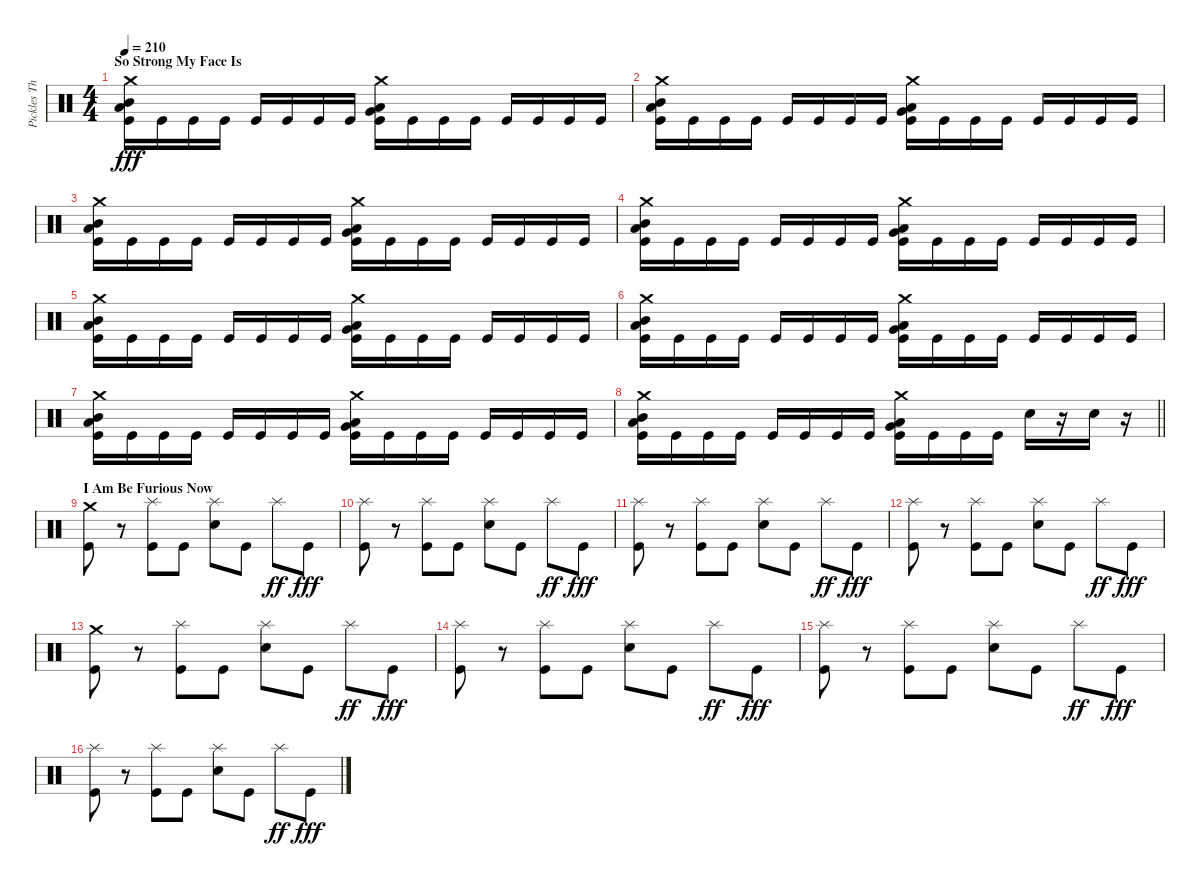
\track ("Pickles The Drummer (Drums)" "Pickles Th") {instrument percussion}
\staff {score}
\articulation defaults
\ts (4 4)
\section ("" "So Strong My Face Is")
\tempo 210
\clef neutral
\ks c
("Crash medium (hit)" "Mid Tom (hit)" "Low Tom (hit)" "Kick (hit)").16{dy fff} "Kick (hit)".16 "Kick (hit)".16 "Kick (hit)".16 "Kick (hit)".16 "Kick (hit)".16 "Kick (hit)".16 "Kick (hit)".16 ("Crash medium (hit)" "Very Low Tom (hit)" "Low Floor Tom (hit)" "Kick (hit)").16 "Kick (hit)".16 "Kick (hit)".16 "Kick (hit)".16 "Kick (hit)".16 "Kick (hit)".16 "Kick (hit)".16 "Kick (hit)".16 |
("Crash medium (hit)" "Mid Tom (hit)" "Low Tom (hit)" "Kick (hit)").16 "Kick (hit)".16 "Kick (hit)".16 "Kick (hit)".16 "Kick (hit)".16 "Kick (hit)".16 "Kick (hit)".16 "Kick (hit)".16 ("Crash medium (hit)" "Very Low Tom (hit)" "Low Floor Tom (hit)" "Kick (hit)").16 "Kick (hit)".16 "Kick (hit)".16 "Kick (hit)".16 "Kick (hit)".16 "Kick (hit)".16 "Kick (hit)".16 "Kick (hit)".16 |
("Crash medium (hit)" "Mid Tom (hit)" "Low Tom (hit)" "Kick (hit)").16 "Kick (hit)".16 "Kick (hit)".16 "Kick (hit)".16 "Kick (hit)".16 "Kick (hit)".16 "Kick (hit)".16 "Kick (hit)".16 ("Crash medium (hit)" "Very Low Tom (hit)" "Low Floor Tom (hit)" "Kick (hit)").16 "Kick (hit)".16 "Kick (hit)".16 "Kick (hit)".16 "Kick (hit)".16 "Kick (hit)".16 "Kick (hit)".16 "Kick (hit)".16 |
("Crash medium (hit)" "Mid Tom (hit)" "Low Tom (hit)" "Kick (hit)").16 "Kick (hit)".16 "Kick (hit)".16 "Kick (hit)".16 "Kick (hit)".16 "Kick (hit)".16 "Kick (hit)".16 "Kick (hit)".16 ("Crash medium (hit)" "Very Low Tom (hit)" "Low Floor Tom (hit)" "Kick (hit)").16 "Kick (hit)".16 "Kick (hit)".16 "Kick (hit)".16 "Kick (hit)".16 "Kick (hit)".16 "Kick (hit)".16 "Kick (hit)".16 |
("Crash medium (hit)" "Mid Tom (hit)" "Low Tom (hit)" "Kick (hit)").16 "Kick (hit)".16 "Kick (hit)".16 "Kick (hit)".16 "Kick (hit)".16 "Kick (hit)".16 "Kick (hit)".16 "Kick (hit)".16 ("Crash medium (hit)" "Very Low Tom (hit)" "Low Floor Tom (hit)" "Kick (hit)").16 "Kick (hit)".16 "Kick (hit)".16 "Kick (hit)".16 "Kick (hit)".16 "Kick (hit)".16 "Kick (hit)".16 "Kick (hit)".16 |
("Crash medium (hit)" "Mid Tom (hit)" "Low Tom (hit)" "Kick (hit)").16 "Kick (hit)".16 "Kick (hit)".16 "Kick (hit)".16 "Kick (hit)".16 "Kick (hit)".16 "Kick (hit)".16 "Kick (hit)".16 ("Crash medium (hit)" "Very Low Tom (hit)" "Low Floor Tom (hit)" "Kick (hit)").16 "Kick (hit)".16 "Kick (hit)".16 "Kick (hit)".16 "Kick (hit)".16 "Kick (hit)".16 "Kick (hit)".16 "Kick (hit)".16 |
("Crash medium (hit)" "Mid Tom (hit)" "Low Tom (hit)" "Kick (hit)").16 "Kick (hit)".16 "Kick (hit)".16 "Kick (hit)".16 "Kick (hit)".16 "Kick (hit)".16 "Kick (hit)".16 "Kick (hit)".16 ("Crash medium (hit)" "Very Low Tom (hit)" "Low Floor Tom (hit)" "Kick (hit)").16 "Kick (hit)".16 "Kick (hit)".16 "Kick (hit)".16 "Kick (hit)".16 "Kick (hit)".16 "Kick (hit)".16 "Kick (hit)".16 |
\barLineRight lightlight
("Crash medium (hit)" "Mid Tom (hit)" "Low Tom (hit)" "Kick (hit)").16 "Kick (hit)".16 "Kick (hit)".16 "Kick (hit)".16 "Kick (hit)".16 "Kick (hit)".16 "Kick (hit)".16 "Kick (hit)".16 ("Crash medium (hit)" "Very Low Tom (hit)" "Low Floor Tom (hit)" "Kick (hit)").16 "Kick (hit)".16 "Kick (hit)".16 "Kick (hit)".16 "Snare (hit) 2".16 r.16 "Snare (hit) 2".16 r.16 |
\section ("" "I Am Be Furious Now")
("Crash medium (hit)" "Kick (hit)").8 r.8 ("Splash (hit)" "Kick (hit)").8 "Kick (hit)".8 ("Splash (hit)" "Snare (hit) 2").8 "Kick (hit)".8 "Splash (hit)".8{dy ff} "Kick (hit)".8{dy fff} |
("Splash (hit)" "Kick (hit)").8 r.8 ("Splash (hit)" "Kick (hit)").8 "Kick (hit)".8 ("Splash (hit)" "Snare (hit) 2").8 "Kick (hit)".8 "Splash (hit)".8{dy ff} "Kick (hit)".8{dy fff} |
("Splash (hit)" "Kick (hit)").8 r.8 ("Splash (hit)" "Kick (hit)").8 "Kick (hit)".8 ("Splash (hit)" "Snare (hit) 2").8 "Kick (hit)".8 "Splash (hit)".8{dy ff} "Kick (hit)".8{dy fff} |
("Splash (hit)" "Kick (hit)").8 r.8 ("Splash (hit)" "Kick (hit)").8 "Kick (hit)".8 ("Splash (hit)" "Snare (hit) 2").8 "Kick (hit)".8 "Splash (hit)".8{dy ff} "Kick (hit)".8{dy fff} |
("Crash medium (hit)" "Kick (hit)").8 r.8 ("Splash (hit)" "Kick (hit)").8 "Kick (hit)".8 ("Splash (hit)" "Snare (hit) 2").8 "Kick (hit)".8 "Splash (hit)".8{dy ff} "Kick (hit)".8{dy fff} |
("Splash (hit)" "Kick (hit)").8 r.8 ("Splash (hit)" "Kick (hit)").8 "Kick (hit)".8 ("Splash (hit)" "Snare (hit) 2").8 "Kick (hit)".8 "Splash (hit)".8{dy ff} "Kick (hit)".8{dy fff} |
("Splash (hit)" "Kick (hit)").8 r.8 ("Splash (hit)" "Kick (hit)").8 "Kick (hit)".8 ("Splash (hit)" "Snare (hit) 2").8 "Kick (hit)".8 "Splash (hit)".8{dy ff} "Kick (hit)".8{dy fff} |
("Splash (hit)" "Kick (hit)").8 r.8 ("Splash (hit)" "Kick (hit)").8 "Kick (hit)".8 ("Splash (hit)" "Snare (hit) 2").8 "Kick (hit)".8 "Splash (hit)".8{dy ff} "Kick (hit)".8{dy fff}
